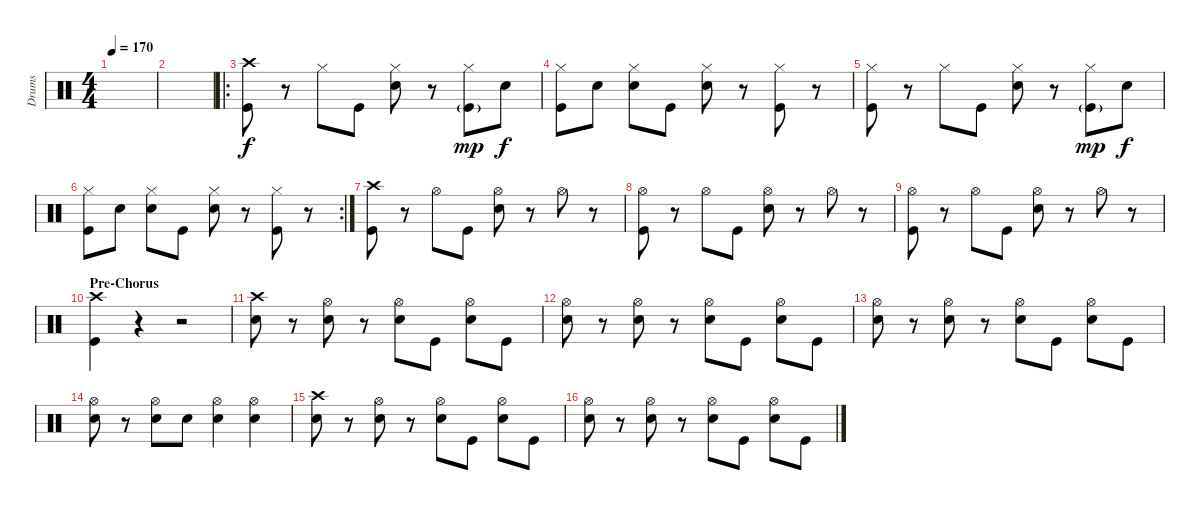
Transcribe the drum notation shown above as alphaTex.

\track ("Drums" "Drums") {instrument percussion}
\staff {score}
\articulation defaults
\ts (4 4)
\tempo 170
\clef neutral
\ks c
|
|
\ro
("Crash high (hit)" "Kick (hit)").8 r.8 "Hi-Hat (closed)".8 "Kick (hit)".8 ("Hi-Hat (closed)" "Snare (hit) 2").8 r.8 ("Hi-Hat (closed)" "Kick (hit)"{g}).8{dy mp} "Snare (hit) 2".8{dy f} |
("Hi-Hat (closed)" "Kick (hit)").8 "Snare (hit) 2".8 ("Hi-Hat (closed)" "Snare (hit) 2").8 "Kick (hit)".8 ("Hi-Hat (closed)" "Snare (hit) 2").8 r.8 ("Hi-Hat (closed)" "Kick (hit)").8 r.8 |
("Hi-Hat (closed)" "Kick (hit)").8 r.8 "Hi-Hat (closed)".8 "Kick (hit)".8 ("Hi-Hat (closed)" "Snare (hit) 2").8 r.8 ("Hi-Hat (closed)" "Kick (hit)"{g}).8{dy mp} "Snare (hit) 2".8{dy f} |
\rc 2
("Hi-Hat (closed)" "Kick (hit)").8 "Snare (hit) 2".8 ("Hi-Hat (closed)" "Snare (hit) 2").8 "Kick (hit)".8 ("Hi-Hat (closed)" "Snare (hit) 2").8 r.8 ("Hi-Hat (closed)" "Kick (hit)").8 r.8 |
("Crash high (hit)" "Kick (hit)").8 r.8 "Hi-Hat (open)".8 "Kick (hit)".8 ("Hi-Hat (open)" "Snare (hit) 2").8 r.8 "Hi-Hat (open)".8 r.8 |
("Hi-Hat (open)" "Kick (hit)").8 r.8 "Hi-Hat (open)".8 "Kick (hit)".8 ("Hi-Hat (open)" "Snare (hit) 2").8 r.8 "Hi-Hat (open)".8 r.8 |
("Hi-Hat (open)" "Kick (hit)").8 r.8 "Hi-Hat (open)".8 "Kick (hit)".8 ("Hi-Hat (open)" "Snare (hit) 2").8 r.8 "Hi-Hat (open)".8 r.8 |
\section ("" "Pre-Chorus")
("Crash high (hit)" "Kick (hit)").4 r.4 r.2 |
("Crash high (hit)" "Snare (hit) 2").8 r.8 ("Hi-Hat (open)" "Snare (hit) 2").8 r.8 ("Hi-Hat (open)" "Snare (hit) 2").8 "Kick (hit)".8 ("Hi-Hat (open)" "Snare (hit) 2").8 "Kick (hit)".8 |
("Hi-Hat (open)" "Snare (hit) 2").8 r.8 ("Hi-Hat (open)" "Snare (hit) 2").8 r.8 ("Hi-Hat (open)" "Snare (hit) 2").8 "Kick (hit)".8 ("Hi-Hat (open)" "Snare (hit) 2").8 "Kick (hit)".8 |
("Hi-Hat (open)" "Snare (hit) 2").8 r.8 ("Hi-Hat (open)" "Snare (hit) 2").8 r.8 ("Hi-Hat (open)" "Snare (hit) 2").8 "Kick (hit)".8 ("Hi-Hat (open)" "Snare (hit) 2").8 "Kick (hit)".8 |
("Hi-Hat (open)" "Snare (hit) 2").8 r.8 ("Hi-Hat (open)" "Snare (hit) 2").8 "Snare (hit) 2".8 ("Hi-Hat (open)" "Snare (hit) 2").4 ("Hi-Hat (open)" "Snare (hit) 2").4 |
("Crash high (hit)" "Snare (hit) 2").8 r.8 ("Hi-Hat (open)" "Snare (hit) 2").8 r.8 ("Hi-Hat (open)" "Snare (hit) 2").8 "Kick (hit)".8 ("Hi-Hat (open)" "Snare (hit) 2").8 "Kick (hit)".8 |
("Hi-Hat (open)" "Snare (hit) 2").8 r.8 ("Hi-Hat (open)" "Snare (hit) 2").8 r.8 ("Hi-Hat (open)" "Snare (hit) 2").8 "Kick (hit)".8 ("Hi-Hat (open)" "Snare (hit) 2").8 "Kick (hit)".8
